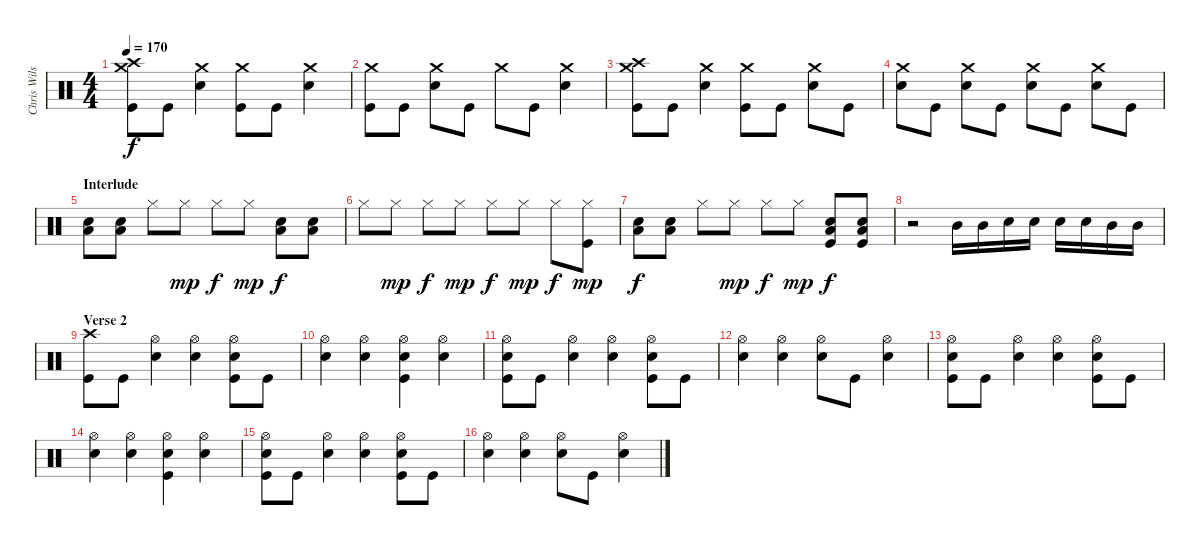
\track ("Chris Wilson" "Chris Wils") {instrument percussion}
\staff {score}
\articulation defaults
\ts (4 4)
\tempo 170
\clef neutral
\ks c
("Crash high (hit)" "Crash medium (hit)" "Kick (hit)").8{dy f} "Kick (hit)".8 ("Crash medium (hit)" "Electric Snare (hit)").4 ("Crash medium (hit)" "Kick (hit)").8 "Kick (hit)".8 ("Crash medium (hit)" "Electric Snare (hit)").4 |
("Crash medium (hit)" "Kick (hit)").8 "Kick (hit)".8 ("Crash medium (hit)" "Electric Snare (hit)").8 "Kick (hit)".8 "Crash medium (hit)".8 "Kick (hit)".8 ("Crash medium (hit)" "Electric Snare (hit)").4 |
("Crash high (hit)" "Crash medium (hit)" "Kick (hit)").8 "Kick (hit)".8 ("Crash medium (hit)" "Electric Snare (hit)").4 ("Crash medium (hit)" "Kick (hit)").8 "Kick (hit)".8 ("Crash medium (hit)" "Electric Snare (hit)").8 "Kick (hit)".8 |
("Crash medium (hit)" "Electric Snare (hit)").8 "Kick (hit)".8 ("Crash medium (hit)" "Electric Snare (hit)").8 "Kick (hit)".8 ("Crash medium (hit)" "Electric Snare (hit)").8 "Kick (hit)".8 ("Crash medium (hit)" "Electric Snare (hit)").8 "Kick (hit)".8 |
\section ("" "Interlude")
("Low Tom (hit)" "Electric Snare (hit)").8 ("Low Tom (hit)" "Electric Snare (hit)").8 "Hi-Hat (closed)".8 "Hi-Hat (closed)".8{dy mp} "Hi-Hat (closed)".8{dy f} "Hi-Hat (closed)".8{dy mp} ("Low Tom (hit)" "Electric Snare (hit)").8{dy f} ("Low Tom (hit)" "Electric Snare (hit)").8 |
"Hi-Hat (closed)".8 "Hi-Hat (closed)".8{dy mp} "Hi-Hat (closed)".8{dy f} "Hi-Hat (closed)".8{dy mp} "Hi-Hat (closed)".8{dy f} "Hi-Hat (closed)".8{dy mp} "Hi-Hat (closed)".8{dy f} ("Hi-Hat (closed)" "Kick (hit)").8{dy mp} |
("Low Tom (hit)" "Electric Snare (hit)").8{dy f} ("Low Tom (hit)" "Electric Snare (hit)").8 "Hi-Hat (closed)".8 "Hi-Hat (closed)".8{dy mp} "Hi-Hat (closed)".8{dy f} "Hi-Hat (closed)".8{dy mp} ("Low Tom (hit)" "Electric Snare (hit)" "Kick (hit)").8{dy f} ("Low Tom (hit)" "Electric Snare (hit)" "Kick (hit)").8 |
r.2 "Mid Tom (hit)".16 "Mid Tom (hit)".16 "Electric Snare (hit)".16 "Electric Snare (hit)".16 "Electric Snare (hit)".16 "Electric Snare (hit)".16 "Mid Tom (hit)".16 "Mid Tom (hit)".16 |
\section ("" "Verse 2")
("Crash high (hit)" "Kick (hit)").8 "Kick (hit)".8 ("Hi-Hat (open)" "Electric Snare (hit)").4 ("Hi-Hat (open)" "Electric Snare (hit)").4 ("Hi-Hat (open)" "Electric Snare (hit)" "Kick (hit)").8 "Kick (hit)".8 |
("Hi-Hat (open)" "Electric Snare (hit)").4 ("Hi-Hat (open)" "Electric Snare (hit)").4 ("Hi-Hat (open)" "Electric Snare (hit)" "Kick (hit)").4 ("Hi-Hat (open)" "Electric Snare (hit)").4 |
("Hi-Hat (open)" "Electric Snare (hit)" "Kick (hit)").8 "Kick (hit)".8 ("Hi-Hat (open)" "Electric Snare (hit)").4 ("Hi-Hat (open)" "Electric Snare (hit)").4 ("Hi-Hat (open)" "Electric Snare (hit)" "Kick (hit)").8 "Kick (hit)".8 |
("Hi-Hat (open)" "Electric Snare (hit)").4 ("Hi-Hat (open)" "Electric Snare (hit)").4 ("Hi-Hat (open)" "Electric Snare (hit)").8 "Kick (hit)".8 ("Hi-Hat (open)" "Electric Snare (hit)").4 |
("Hi-Hat (open)" "Electric Snare (hit)" "Kick (hit)").8 "Kick (hit)".8 ("Hi-Hat (open)" "Electric Snare (hit)").4 ("Hi-Hat (open)" "Electric Snare (hit)").4 ("Hi-Hat (open)" "Electric Snare (hit)" "Kick (hit)").8 "Kick (hit)".8 |
("Hi-Hat (open)" "Electric Snare (hit)").4 ("Hi-Hat (open)" "Electric Snare (hit)").4 ("Hi-Hat (open)" "Electric Snare (hit)" "Kick (hit)").4 ("Hi-Hat (open)" "Electric Snare (hit)").4 |
("Hi-Hat (open)" "Electric Snare (hit)" "Kick (hit)").8 "Kick (hit)".8 ("Hi-Hat (open)" "Electric Snare (hit)").4 ("Hi-Hat (open)" "Electric Snare (hit)").4 ("Hi-Hat (open)" "Electric Snare (hit)" "Kick (hit)").8 "Kick (hit)".8 |
("Hi-Hat (open)" "Electric Snare (hit)").4 ("Hi-Hat (open)" "Electric Snare (hit)").4 ("Hi-Hat (open)" "Electric Snare (hit)").8 "Kick (hit)".8 ("Hi-Hat (open)" "Electric Snare (hit)").4
